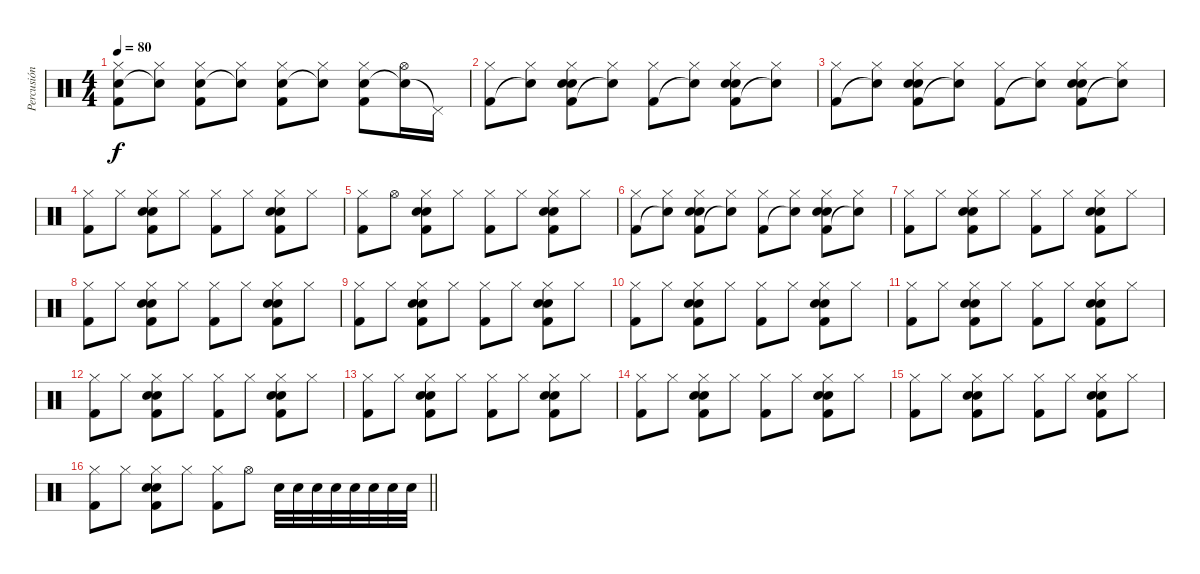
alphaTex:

\track ("Percusión" "Percusión") {instrument percussion}
\staff {score}
\articulation defaults
\ts (4 4)
\tempo 80
\clef neutral
\ks c
("Electric Snare (hit)" "Kick (hit) 2" "Hi-Hat (closed)").8{dy f} ("Snare (hit)"{t} "Hi-Hat (closed)").8 ("Electric Snare (hit)" "Kick (hit) 2" "Hi-Hat (closed)").8 ("Snare (hit)"{t} "Hi-Hat (closed)").8 ("Electric Snare (hit)" "Kick (hit) 2" "Hi-Hat (closed)").8 ("Snare (hit)"{t} "Hi-Hat (closed)").8 ("Electric Snare (hit)" "Kick (hit) 2" "Hi-Hat (closed)").8 ("Snare (hit)"{t} "Hi-Hat (open)").16 "Pedal Hi-Hat (hit)"{t}.16 |
("Hi-Hat (closed)" "Kick (hit) 2").8 ("Hi-Hat (closed)" "Snare (hit)"{t}).8 ("Hi-Hat (closed)" "Kick (hit) 2" "Electric Snare (hit)" "Hand Clap (hit)").8 ("Hi-Hat (closed)" "Snare (hit)"{t}).8 ("Hi-Hat (closed)" "Kick (hit) 2").8 ("Hi-Hat (closed)" "Snare (hit)"{t}).8 ("Hi-Hat (closed)" "Kick (hit) 2" "Electric Snare (hit)" "Hand Clap (hit)").8 ("Hi-Hat (closed)" "Snare (hit)"{t}).8 |
("Hi-Hat (closed)" "Kick (hit) 2").8 ("Hi-Hat (closed)" "Snare (hit)"{t}).8 ("Hi-Hat (closed)" "Kick (hit) 2" "Electric Snare (hit)" "Hand Clap (hit)").8 ("Hi-Hat (closed)" "Snare (hit)"{t}).8 ("Hi-Hat (closed)" "Kick (hit) 2").8 ("Hi-Hat (closed)" "Snare (hit)"{t}).8 ("Hi-Hat (closed)" "Kick (hit) 2" "Electric Snare (hit)" "Hand Clap (hit)").8 ("Hi-Hat (closed)" "Snare (hit)"{t}).8 |
("Hi-Hat (closed)" "Kick (hit) 2").8 "Hi-Hat (closed)".8 ("Hi-Hat (closed)" "Kick (hit) 2" "Electric Snare (hit)" "Hand Clap (hit)").8 "Hi-Hat (closed)".8 ("Hi-Hat (closed)" "Kick (hit) 2").8 "Hi-Hat (closed)".8 ("Hi-Hat (closed)" "Kick (hit) 2" "Electric Snare (hit)" "Hand Clap (hit)").8 "Hi-Hat (closed)".8 |
("Hi-Hat (closed)" "Kick (hit) 2").8 "Hi-Hat (open)".8 ("Hi-Hat (closed)" "Kick (hit) 2" "Electric Snare (hit)" "Hand Clap (hit)").8 "Hi-Hat (closed)".8 ("Hi-Hat (closed)" "Kick (hit) 2").8 "Hi-Hat (closed)".8 ("Hi-Hat (closed)" "Kick (hit) 2" "Electric Snare (hit)" "Hand Clap (hit)").8 "Hi-Hat (closed)".8 |
("Hi-Hat (closed)" "Kick (hit) 2").8 ("Hi-Hat (closed)" "Snare (hit)"{t}).8 ("Hi-Hat (closed)" "Kick (hit) 2" "Electric Snare (hit)" "Hand Clap (hit)").8 ("Hi-Hat (closed)" "Snare (hit)"{t}).8 ("Hi-Hat (closed)" "Kick (hit) 2").8 ("Hi-Hat (closed)" "Snare (hit)"{t}).8 ("Hi-Hat (closed)" "Kick (hit) 2" "Electric Snare (hit)" "Hand Clap (hit)").8 ("Hi-Hat (closed)" "Snare (hit)"{t}).8 |
("Hi-Hat (closed)" "Kick (hit) 2").8 "Hi-Hat (closed)".8 ("Hi-Hat (closed)" "Kick (hit) 2" "Electric Snare (hit)" "Hand Clap (hit)").8 "Hi-Hat (closed)".8 ("Hi-Hat (closed)" "Kick (hit) 2").8 "Hi-Hat (closed)".8 ("Hi-Hat (closed)" "Kick (hit) 2" "Electric Snare (hit)" "Hand Clap (hit)").8 "Hi-Hat (closed)".8 |
("Hi-Hat (closed)" "Kick (hit) 2").8 "Hi-Hat (closed)".8 ("Hi-Hat (closed)" "Kick (hit) 2" "Electric Snare (hit)" "Hand Clap (hit)").8 "Hi-Hat (closed)".8 ("Hi-Hat (closed)" "Kick (hit) 2").8 "Hi-Hat (closed)".8 ("Hi-Hat (closed)" "Kick (hit) 2" "Electric Snare (hit)" "Hand Clap (hit)").8 "Hi-Hat (closed)".8 |
("Hi-Hat (closed)" "Kick (hit) 2").8 "Hi-Hat (closed)".8 ("Hi-Hat (closed)" "Kick (hit) 2" "Electric Snare (hit)" "Hand Clap (hit)").8 "Hi-Hat (closed)".8 ("Hi-Hat (closed)" "Kick (hit) 2").8 "Hi-Hat (closed)".8 ("Hi-Hat (closed)" "Kick (hit) 2" "Electric Snare (hit)" "Hand Clap (hit)").8 "Hi-Hat (closed)".8 |
("Hi-Hat (closed)" "Kick (hit) 2").8 "Hi-Hat (closed)".8 ("Hi-Hat (closed)" "Kick (hit) 2" "Electric Snare (hit)" "Hand Clap (hit)").8 "Hi-Hat (closed)".8 ("Hi-Hat (closed)" "Kick (hit) 2").8 "Hi-Hat (closed)".8 ("Hi-Hat (closed)" "Kick (hit) 2" "Electric Snare (hit)" "Hand Clap (hit)").8 "Hi-Hat (closed)".8 |
("Hi-Hat (closed)" "Kick (hit) 2").8 "Hi-Hat (closed)".8 ("Hi-Hat (closed)" "Kick (hit) 2" "Electric Snare (hit)" "Hand Clap (hit)").8 "Hi-Hat (closed)".8 ("Hi-Hat (closed)" "Kick (hit) 2").8 "Hi-Hat (closed)".8 ("Hi-Hat (closed)" "Kick (hit) 2" "Electric Snare (hit)" "Hand Clap (hit)").8 "Hi-Hat (closed)".8 |
("Hi-Hat (closed)" "Kick (hit) 2").8 "Hi-Hat (closed)".8 ("Hi-Hat (closed)" "Kick (hit) 2" "Electric Snare (hit)" "Hand Clap (hit)").8 "Hi-Hat (closed)".8 ("Hi-Hat (closed)" "Kick (hit) 2").8 "Hi-Hat (closed)".8 ("Hi-Hat (closed)" "Kick (hit) 2" "Electric Snare (hit)" "Hand Clap (hit)").8 "Hi-Hat (closed)".8 |
("Hi-Hat (closed)" "Kick (hit) 2").8 "Hi-Hat (closed)".8 ("Hi-Hat (closed)" "Kick (hit) 2" "Electric Snare (hit)" "Hand Clap (hit)").8 "Hi-Hat (closed)".8 ("Hi-Hat (closed)" "Kick (hit) 2").8 "Hi-Hat (closed)".8 ("Hi-Hat (closed)" "Kick (hit) 2" "Electric Snare (hit)" "Hand Clap (hit)").8 "Hi-Hat (closed)".8 |
("Hi-Hat (closed)" "Kick (hit) 2").8 "Hi-Hat (closed)".8 ("Hi-Hat (closed)" "Kick (hit) 2" "Electric Snare (hit)" "Hand Clap (hit)").8 "Hi-Hat (closed)".8 ("Hi-Hat (closed)" "Kick (hit) 2").8 "Hi-Hat (closed)".8 ("Hi-Hat (closed)" "Kick (hit) 2" "Electric Snare (hit)" "Hand Clap (hit)").8 "Hi-Hat (closed)".8 |
("Hi-Hat (closed)" "Kick (hit) 2").8 "Hi-Hat (closed)".8 ("Hi-Hat (closed)" "Kick (hit) 2" "Electric Snare (hit)" "Hand Clap (hit)").8 "Hi-Hat (closed)".8 ("Hi-Hat (closed)" "Kick (hit) 2").8 "Hi-Hat (closed)".8 ("Hi-Hat (closed)" "Kick (hit) 2" "Electric Snare (hit)" "Hand Clap (hit)").8 "Hi-Hat (closed)".8 |
\barLineRight lightlight
("Hi-Hat (closed)" "Kick (hit) 2").8 "Hi-Hat (closed)".8 ("Hi-Hat (closed)" "Kick (hit) 2" "Electric Snare (hit)" "Hand Clap (hit)").8 "Hi-Hat (closed)".8 ("Hi-Hat (closed)" "Kick (hit) 2").8 "Hi-Hat (open)".8 "Electric Snare (hit)".32 "Electric Snare (hit)".32 "Electric Snare (hit)".32 "Electric Snare (hit)".32 "Electric Snare (hit)".32 "Electric Snare (hit)".32 "Electric Snare (hit)".32 "Electric Snare (hit)".32
